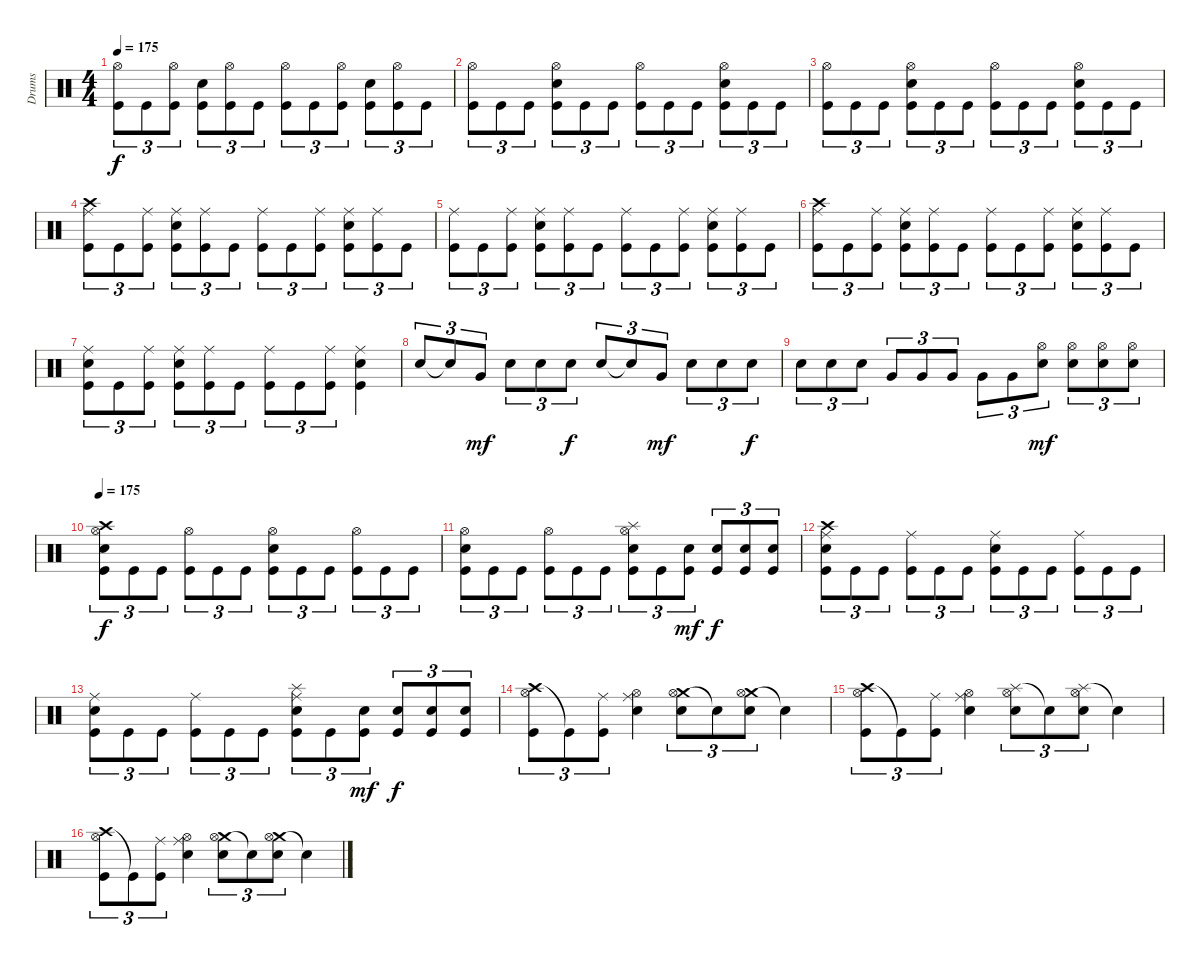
\track ("Drums" "Drums") {instrument percussion}
\staff {score}
\articulation defaults
\ts (4 4)
\tempo 175
\clef neutral
\ks c
("Hi-Hat (open)" "Kick (hit)").8{tu (3 2) dy f} "Kick (hit)".8{tu (3 2)} ("Hi-Hat (open)" "Kick (hit)").8{tu (3 2)} ("Electric Snare (hit)" "Kick (hit)").8{tu (3 2)} ("Hi-Hat (open)" "Kick (hit)").8{tu (3 2)} "Kick (hit)".8{tu (3 2)} ("Hi-Hat (open)" "Kick (hit)").8{tu (3 2)} "Kick (hit)".8{tu (3 2)} ("Hi-Hat (open)" "Kick (hit)").8{tu (3 2)} ("Electric Snare (hit)" "Kick (hit)").8{tu (3 2)} ("Hi-Hat (open)" "Kick (hit)").8{tu (3 2)} "Kick (hit)".8{tu (3 2)} |
("Hi-Hat (open)" "Kick (hit)").8{tu (3 2)} "Kick (hit)".8{tu (3 2)} "Kick (hit)".8{tu (3 2)} ("Hi-Hat (open)" "Electric Snare (hit)" "Kick (hit)").8{tu (3 2)} "Kick (hit)".8{tu (3 2)} "Kick (hit)".8{tu (3 2)} ("Hi-Hat (open)" "Kick (hit)").8{tu (3 2)} "Kick (hit)".8{tu (3 2)} "Kick (hit)".8{tu (3 2)} ("Hi-Hat (open)" "Electric Snare (hit)" "Kick (hit)").8{tu (3 2)} "Kick (hit)".8{tu (3 2)} "Kick (hit)".8{tu (3 2)} |
("Hi-Hat (open)" "Kick (hit)").8{tu (3 2)} "Kick (hit)".8{tu (3 2)} "Kick (hit)".8{tu (3 2)} ("Hi-Hat (open)" "Electric Snare (hit)" "Kick (hit)").8{tu (3 2)} "Kick (hit)".8{tu (3 2)} "Kick (hit)".8{tu (3 2)} ("Hi-Hat (open)" "Kick (hit)").8{tu (3 2)} "Kick (hit)".8{tu (3 2)} "Kick (hit)".8{tu (3 2)} ("Hi-Hat (open)" "Electric Snare (hit)" "Kick (hit)").8{tu (3 2)} "Kick (hit)".8{tu (3 2)} "Kick (hit)".8{tu (3 2)} |
("Crash high (hit)" "Ride (middle)" "Kick (hit)").8{tu (3 2)} "Kick (hit)".8{tu (3 2)} ("Ride (middle)" "Kick (hit)").8{tu (3 2)} ("Ride (middle)" "Electric Snare (hit)" "Kick (hit)").8{tu (3 2)} ("Ride (middle)" "Kick (hit)").8{tu (3 2)} "Kick (hit)".8{tu (3 2)} ("Ride (middle)" "Kick (hit)").8{tu (3 2)} "Kick (hit)".8{tu (3 2)} ("Ride (middle)" "Kick (hit)").8{tu (3 2)} ("Ride (middle)" "Electric Snare (hit)" "Kick (hit)").8{tu (3 2)} ("Ride (middle)" "Kick (hit)").8{tu (3 2)} "Kick (hit)".8{tu (3 2)} |
("Ride (middle)" "Kick (hit)").8{tu (3 2)} "Kick (hit)".8{tu (3 2)} ("Ride (middle)" "Kick (hit)").8{tu (3 2)} ("Ride (middle)" "Electric Snare (hit)" "Kick (hit)").8{tu (3 2)} ("Ride (middle)" "Kick (hit)").8{tu (3 2)} "Kick (hit)".8{tu (3 2)} ("Ride (middle)" "Kick (hit)").8{tu (3 2)} "Kick (hit)".8{tu (3 2)} ("Ride (middle)" "Kick (hit)").8{tu (3 2)} ("Ride (middle)" "Electric Snare (hit)" "Kick (hit)").8{tu (3 2)} ("Ride (middle)" "Kick (hit)").8{tu (3 2)} "Kick (hit)".8{tu (3 2)} |
("Crash high (hit)" "Ride (middle)" "Kick (hit)").8{tu (3 2)} "Kick (hit)".8{tu (3 2)} ("Ride (middle)" "Kick (hit)").8{tu (3 2)} ("Ride (middle)" "Electric Snare (hit)" "Kick (hit)").8{tu (3 2)} ("Ride (middle)" "Kick (hit)").8{tu (3 2)} "Kick (hit)".8{tu (3 2)} ("Ride (middle)" "Kick (hit)").8{tu (3 2)} "Kick (hit)".8{tu (3 2)} ("Ride (middle)" "Kick (hit)").8{tu (3 2)} ("Ride (middle)" "Electric Snare (hit)" "Kick (hit)").8{tu (3 2)} ("Ride (middle)" "Kick (hit)").8{tu (3 2)} "Kick (hit)".8{tu (3 2)} |
("Ride (middle)" "Electric Snare (hit)" "Kick (hit)").8{tu (3 2)} "Kick (hit)".8{tu (3 2)} ("Ride (middle)" "Kick (hit)").8{tu (3 2)} ("Ride (middle)" "Electric Snare (hit)" "Kick (hit)").8{tu (3 2)} ("Ride (middle)" "Kick (hit)").8{tu (3 2)} "Kick (hit)".8{tu (3 2)} ("Ride (middle)" "Kick (hit)").8{tu (3 2)} "Kick (hit)".8{tu (3 2)} ("Ride (middle)" "Kick (hit)").8{tu (3 2)} ("Ride (middle)" "Electric Snare (hit)" "Kick (hit)").4 |
"Electric Snare (hit)".8{tu (3 2)} "Snare (hit)"{t}.8{tu (3 2)} "Very Low Tom (hit)".8{tu (3 2) dy mf} "Electric Snare (hit)".8{tu (3 2)} "Electric Snare (hit)".8{tu (3 2)} "Electric Snare (hit)".8{tu (3 2) dy f} "Electric Snare (hit)".8{tu (3 2)} "Snare (hit)"{t}.8{tu (3 2)} "Very Low Tom (hit)".8{tu (3 2) dy mf} "Electric Snare (hit)".8{tu (3 2)} "Electric Snare (hit)".8{tu (3 2)} "Electric Snare (hit)".8{tu (3 2) dy f} |
"Electric Snare (hit)".8{tu (3 2)} "Electric Snare (hit)".8{tu (3 2)} "Electric Snare (hit)".8{tu (3 2)} "Very Low Tom (hit)".8{tu (3 2)} "Very Low Tom (hit)".8{tu (3 2)} "Very Low Tom (hit)".8{tu (3 2)} "Very Low Tom (hit)".8{tu (3 2)} "Very Low Tom (hit)".8{tu (3 2)} ("Hi-Hat (open)" "Electric Snare (hit)").8{tu (3 2) dy mf} ("Hi-Hat (open)" "Electric Snare (hit)").8{tu (3 2)} ("Hi-Hat (open)" "Electric Snare (hit)").8{tu (3 2)} ("Hi-Hat (open)" "Electric Snare (hit)").8{tu (3 2)} |
\tempo 175
("Crash high (hit)" "Hi-Hat (open)" "Electric Snare (hit)" "Kick (hit)").8{tu (3 2) dy f} "Kick (hit)".8{tu (3 2)} "Kick (hit)".8{tu (3 2)} ("Hi-Hat (open)" "Kick (hit)").8{tu (3 2)} "Kick (hit)".8{tu (3 2)} "Kick (hit)".8{tu (3 2)} ("Hi-Hat (open)" "Electric Snare (hit)" "Kick (hit)").8{tu (3 2)} "Kick (hit)".8{tu (3 2)} "Kick (hit)".8{tu (3 2)} ("Hi-Hat (open)" "Kick (hit)").8{tu (3 2)} "Kick (hit)".8{tu (3 2)} "Kick (hit)".8{tu (3 2)} |
("Hi-Hat (open)" "Electric Snare (hit)" "Kick (hit)").8{tu (3 2)} "Kick (hit)".8{tu (3 2)} "Kick (hit)".8{tu (3 2)} ("Hi-Hat (open)" "Kick (hit)").8{tu (3 2)} "Kick (hit)".8{tu (3 2)} "Kick (hit)".8{tu (3 2)} ("Splash (hit)" "Hi-Hat (open)" "Electric Snare (hit)" "Kick (hit)").8{tu (3 2)} "Kick (hit)".8{tu (3 2)} ("Electric Snare (hit)" "Kick (hit)").8{tu (3 2) dy mf} ("Electric Snare (hit)" "Kick (hit)").8{tu (3 2) dy f} ("Electric Snare (hit)" "Kick (hit)").8{tu (3 2)} ("Electric Snare (hit)" "Kick (hit)").8{tu (3 2)} |
("Crash high (hit)" "Ride (middle)" "Electric Snare (hit)" "Kick (hit)").8{tu (3 2)} "Kick (hit)".8{tu (3 2)} "Kick (hit)".8{tu (3 2)} ("Ride (middle)" "Kick (hit)").8{tu (3 2)} "Kick (hit)".8{tu (3 2)} "Kick (hit)".8{tu (3 2)} ("Ride (middle)" "Electric Snare (hit)" "Kick (hit)").8{tu (3 2)} "Kick (hit)".8{tu (3 2)} "Kick (hit)".8{tu (3 2)} ("Ride (middle)" "Kick (hit)").8{tu (3 2)} "Kick (hit)".8{tu (3 2)} "Kick (hit)".8{tu (3 2)} |
("Ride (middle)" "Electric Snare (hit)" "Kick (hit)").8{tu (3 2)} "Kick (hit)".8{tu (3 2)} "Kick (hit)".8{tu (3 2)} ("Ride (middle)" "Kick (hit)").8{tu (3 2)} "Kick (hit)".8{tu (3 2)} "Kick (hit)".8{tu (3 2)} ("Splash (hit)" "Ride (middle)" "Electric Snare (hit)" "Kick (hit)").8{tu (3 2)} "Kick (hit)".8{tu (3 2)} ("Electric Snare (hit)" "Kick (hit)").8{tu (3 2) dy mf} ("Electric Snare (hit)" "Kick (hit)").8{tu (3 2) dy f} ("Electric Snare (hit)" "Kick (hit)").8{tu (3 2)} ("Electric Snare (hit)" "Kick (hit)").8{tu (3 2)} |
("Crash high (hit)" "Hi-Hat (open)" "Kick (hit)").8{tu (3 2)} "Kick (hit)"{t}.8{tu (3 2)} ("Ride (middle)" "Kick (hit)").8{tu (3 2)} ("Ride (middle)" "Hi-Hat (open)" "Electric Snare (hit)").4 ("Crash medium (hit)" "Hi-Hat (open)" "Electric Snare (hit)").8{tu (3 2)} "Snare (hit)"{t}.8{tu (3 2)} ("Crash medium (hit)" "Hi-Hat (open)" "Electric Snare (hit)").8{tu (3 2)} "Snare (hit)"{t}.4 |
("Crash high (hit)" "Hi-Hat (open)" "Kick (hit)").8{tu (3 2)} "Kick (hit)"{t}.8{tu (3 2)} ("Ride (middle)" "Kick (hit)").8{tu (3 2)} ("Ride (middle)" "Hi-Hat (open)" "Electric Snare (hit)").4 ("Splash (hit)" "Hi-Hat (open)" "Electric Snare (hit)").8{tu (3 2)} "Snare (hit)"{t}.8{tu (3 2)} ("Splash (hit)" "Hi-Hat (open)" "Electric Snare (hit)").8{tu (3 2)} "Snare (hit)"{t}.4 |
("Crash high (hit)" "Hi-Hat (open)" "Kick (hit)").8{tu (3 2)} "Kick (hit)"{t}.8{tu (3 2)} ("Ride (middle)" "Kick (hit)").8{tu (3 2)} ("Ride (middle)" "Hi-Hat (open)" "Electric Snare (hit)").4 ("Crash medium (hit)" "Hi-Hat (open)" "Electric Snare (hit)").8{tu (3 2)} "Snare (hit)"{t}.8{tu (3 2)} ("Crash medium (hit)" "Hi-Hat (open)" "Electric Snare (hit)").8{tu (3 2)} "Snare (hit)"{t}.4
